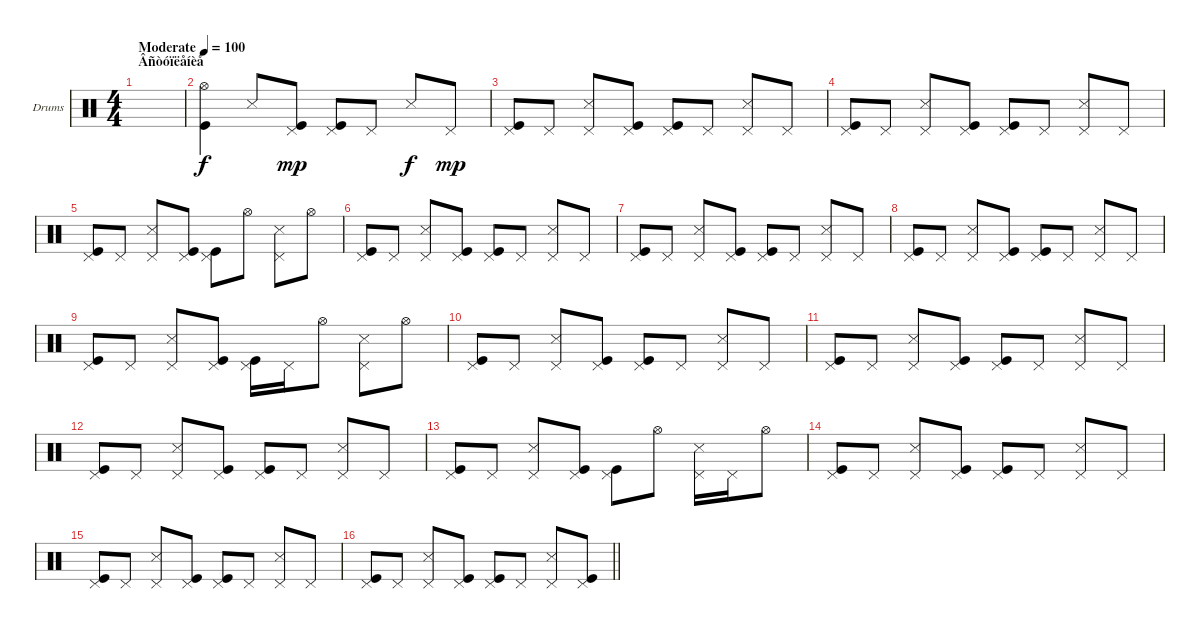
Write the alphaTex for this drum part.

\bracketExtendMode groupsimilarinstruments
\firstSystemTrackNameOrientation horizontal
\otherSystemsTrackNameOrientation horizontal
\track ("Drumkit" "Drums") {instrument percussion}
\staff {score}
\articulation defaults
\ts (4 4)
\section ("" "Âñòóïëåíèå")
\tempo (100 "Moderate")
\clef neutral
\scale
0.474178
\ks c
|
\scale
0.262911 ("Hi-Hat (open)" "Kick (hit)").4 "Snare (side stick) 3".8{dy f} ("Pedal Hi-Hat (hit)" "Kick (hit)").8{dy mp} ("Pedal Hi-Hat (hit)" "Kick (hit)").8 "Pedal Hi-Hat (hit)".8 "Snare (side stick) 3".8{dy f} "Pedal Hi-Hat (hit)".8{dy mp} |
\scale
0.262911 ("Pedal Hi-Hat (hit)" "Kick (hit)").8 "Pedal Hi-Hat (hit)".8 ("Pedal Hi-Hat (hit)" "Snare (side stick) 3").8 ("Pedal Hi-Hat (hit)" "Kick (hit)").8 ("Pedal Hi-Hat (hit)" "Kick (hit)").8 "Pedal Hi-Hat (hit)".8 ("Pedal Hi-Hat (hit)" "Snare (side stick) 3").8 "Pedal Hi-Hat (hit)".8 |
\scale
0.333333 ("Pedal Hi-Hat (hit)" "Kick (hit)").8 "Pedal Hi-Hat (hit)".8 ("Pedal Hi-Hat (hit)" "Snare (side stick) 3").8 ("Pedal Hi-Hat (hit)" "Kick (hit)").8 ("Pedal Hi-Hat (hit)" "Kick (hit)").8 "Pedal Hi-Hat (hit)".8 ("Pedal Hi-Hat (hit)" "Snare (side stick) 3").8 "Pedal Hi-Hat (hit)".8 |
\scale
0.333333 ("Pedal Hi-Hat (hit)" "Kick (hit)").8 "Pedal Hi-Hat (hit)".8 ("Pedal Hi-Hat (hit)" "Snare (side stick) 3").8 ("Pedal Hi-Hat (hit)" "Kick (hit)").8 ("Pedal Hi-Hat (hit)" "Kick (hit)").8 "Hi-Hat (open)".8 ("Pedal Hi-Hat (hit)" "Snare (side stick) 3").8 "Hi-Hat (open)".8 |
\scale
0.333333 ("Pedal Hi-Hat (hit)" "Kick (hit)").8 "Pedal Hi-Hat (hit)".8 ("Pedal Hi-Hat (hit)" "Snare (side stick) 3").8 ("Pedal Hi-Hat (hit)" "Kick (hit)").8 ("Pedal Hi-Hat (hit)" "Kick (hit)").8 "Pedal Hi-Hat (hit)".8 ("Pedal Hi-Hat (hit)" "Snare (side stick) 3").8 "Pedal Hi-Hat (hit)".8 |
\scale
0.333333 ("Pedal Hi-Hat (hit)" "Kick (hit)").8 "Pedal Hi-Hat (hit)".8 ("Pedal Hi-Hat (hit)" "Snare (side stick) 3").8 ("Pedal Hi-Hat (hit)" "Kick (hit)").8 ("Pedal Hi-Hat (hit)" "Kick (hit)").8 "Pedal Hi-Hat (hit)".8 ("Pedal Hi-Hat (hit)" "Snare (side stick) 3").8 "Pedal Hi-Hat (hit)".8 |
\scale
0.333333 ("Pedal Hi-Hat (hit)" "Kick (hit)").8 "Pedal Hi-Hat (hit)".8 ("Pedal Hi-Hat (hit)" "Snare (side stick) 3").8 ("Pedal Hi-Hat (hit)" "Kick (hit)").8 ("Pedal Hi-Hat (hit)" "Kick (hit)").8 "Pedal Hi-Hat (hit)".8 ("Pedal Hi-Hat (hit)" "Snare (side stick) 3").8 "Pedal Hi-Hat (hit)".8 |
\scale
0.333333 ("Pedal Hi-Hat (hit)" "Kick (hit)").8 "Pedal Hi-Hat (hit)".8 ("Pedal Hi-Hat (hit)" "Snare (side stick) 3").8 ("Pedal Hi-Hat (hit)" "Kick (hit)").8 ("Pedal Hi-Hat (hit)" "Kick (hit)").16 "Pedal Hi-Hat (hit)".16 "Hi-Hat (open)".8 ("Pedal Hi-Hat (hit)" "Snare (side stick) 3").8 "Hi-Hat (open)".8 |
\scale
0.333333 ("Pedal Hi-Hat (hit)" "Kick (hit)").8 "Pedal Hi-Hat (hit)".8 ("Pedal Hi-Hat (hit)" "Snare (side stick) 3").8 ("Pedal Hi-Hat (hit)" "Kick (hit)").8 ("Pedal Hi-Hat (hit)" "Kick (hit)").8 "Pedal Hi-Hat (hit)".8 ("Pedal Hi-Hat (hit)" "Snare (side stick) 3").8 "Pedal Hi-Hat (hit)".8 |
\scale
0.333333 ("Pedal Hi-Hat (hit)" "Kick (hit)").8 "Pedal Hi-Hat (hit)".8 ("Pedal Hi-Hat (hit)" "Snare (side stick) 3").8 ("Pedal Hi-Hat (hit)" "Kick (hit)").8 ("Pedal Hi-Hat (hit)" "Kick (hit)").8 "Pedal Hi-Hat (hit)".8 ("Pedal Hi-Hat (hit)" "Snare (side stick) 3").8 "Pedal Hi-Hat (hit)".8 |
\scale
0.333333 ("Pedal Hi-Hat (hit)" "Kick (hit)").8 "Pedal Hi-Hat (hit)".8 ("Pedal Hi-Hat (hit)" "Snare (side stick) 3").8 ("Pedal Hi-Hat (hit)" "Kick (hit)").8 ("Pedal Hi-Hat (hit)" "Kick (hit)").8 "Pedal Hi-Hat (hit)".8 ("Pedal Hi-Hat (hit)" "Snare (side stick) 3").8 "Pedal Hi-Hat (hit)".8 |
\scale
0.333333 ("Pedal Hi-Hat (hit)" "Kick (hit)").8 "Pedal Hi-Hat (hit)".8 ("Pedal Hi-Hat (hit)" "Snare (side stick) 3").8 ("Pedal Hi-Hat (hit)" "Kick (hit)").8 ("Pedal Hi-Hat (hit)" "Kick (hit)").8 "Hi-Hat (open)".8 ("Pedal Hi-Hat (hit)" "Snare (side stick) 3").16 "Pedal Hi-Hat (hit)".16 "Hi-Hat (open)".8 |
\scale
0.333333 ("Pedal Hi-Hat (hit)" "Kick (hit)").8 "Pedal Hi-Hat (hit)".8 ("Pedal Hi-Hat (hit)" "Snare (side stick) 3").8 ("Pedal Hi-Hat (hit)" "Kick (hit)").8 ("Pedal Hi-Hat (hit)" "Kick (hit)").8 "Pedal Hi-Hat (hit)".8 ("Pedal Hi-Hat (hit)" "Snare (side stick) 3").8 "Pedal Hi-Hat (hit)".8 |
\scale
0.333333 ("Pedal Hi-Hat (hit)" "Kick (hit)").8 "Pedal Hi-Hat (hit)".8 ("Pedal Hi-Hat (hit)" "Snare (side stick) 3").8 ("Pedal Hi-Hat (hit)" "Kick (hit)").8 ("Pedal Hi-Hat (hit)" "Kick (hit)").8 "Pedal Hi-Hat (hit)".8 ("Pedal Hi-Hat (hit)" "Snare (side stick) 3").8 "Pedal Hi-Hat (hit)".8 |
\scale
0.333333
\barLineRight lightlight
("Pedal Hi-Hat (hit)" "Kick (hit)").8 "Pedal Hi-Hat (hit)".8 ("Pedal Hi-Hat (hit)" "Snare (side stick) 3").8 ("Pedal Hi-Hat (hit)" "Kick (hit)").8 ("Pedal Hi-Hat (hit)" "Kick (hit)").8 "Pedal Hi-Hat (hit)".8 ("Pedal Hi-Hat (hit)" "Snare (side stick) 3").8 ("Pedal Hi-Hat (hit)" "Kick (hit)").8
